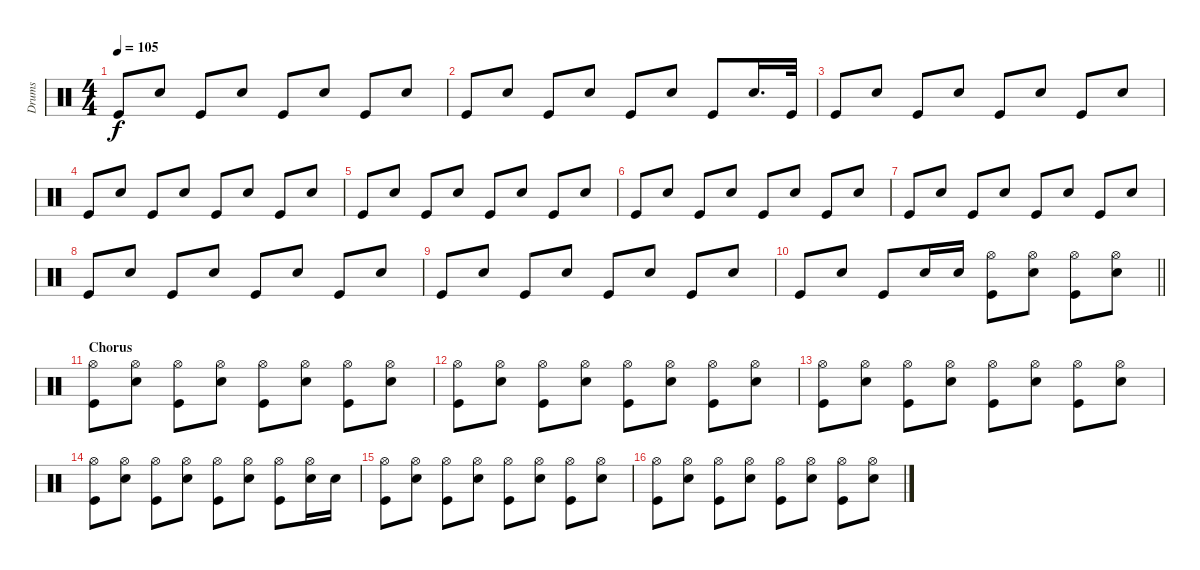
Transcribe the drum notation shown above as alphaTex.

\track ("Drums" "Drums") {instrument percussion}
\staff
\articulation defaults
\ts (4 4)
\tempo 105
\clef neutral
\ks c "Kick (hit)".8{dy f} "Snare (hit) 2".8 "Kick (hit)".8 "Snare (hit) 2".8 "Kick (hit)".8 "Snare (hit) 2".8 "Kick (hit)".8 "Snare (hit) 2".8
|
"Kick (hit)".8 "Snare (hit) 2".8 "Kick (hit)".8 "Snare (hit) 2".8 "Kick (hit)".8 "Snare (hit) 2".8 "Kick (hit)".8 "Snare (hit) 2".16{d} "Kick (hit)".32 |
"Kick (hit)".8 "Snare (hit) 2".8 "Kick (hit)".8 "Snare (hit) 2".8 "Kick (hit)".8 "Snare (hit) 2".8 "Kick (hit)".8 "Snare (hit) 2".8 |
"Kick (hit)".8 "Snare (hit) 2".8 "Kick (hit)".8 "Snare (hit) 2".8 "Kick (hit)".8 "Snare (hit) 2".8 "Kick (hit)".8 "Snare (hit) 2".8 |
"Kick (hit)".8 "Snare (hit) 2".8 "Kick (hit)".8 "Snare (hit) 2".8 "Kick (hit)".8 "Snare (hit) 2".8 "Kick (hit)".8 "Snare (hit) 2".8 |
"Kick (hit)".8 "Snare (hit) 2".8 "Kick (hit)".8 "Snare (hit) 2".8 "Kick (hit)".8 "Snare (hit) 2".8 "Kick (hit)".8 "Snare (hit) 2".8 |
"Kick (hit)".8 "Snare (hit) 2".8 "Kick (hit)".8 "Snare (hit) 2".8 "Kick (hit)".8 "Snare (hit) 2".8 "Kick (hit)".8 "Snare (hit) 2".8 |
"Kick (hit)".8 "Snare (hit) 2".8 "Kick (hit)".8 "Snare (hit) 2".8 "Kick (hit)".8 "Snare (hit) 2".8 "Kick (hit)".8 "Snare (hit) 2".8 |
"Kick (hit)".8 "Snare (hit) 2".8 "Kick (hit)".8 "Snare (hit) 2".8 "Kick (hit)".8 "Snare (hit) 2".8 "Kick (hit)".8 "Snare (hit) 2".8 |
\barLineRight lightlight "Kick (hit)".8 "Snare (hit) 2".8 "Kick (hit)".8 "Snare (hit) 2".16 "Snare (hit) 2".16
("Hi-Hat (open)" "Kick (hit)").8 ("Hi-Hat (open)" "Snare (hit) 2").8 ("Hi-Hat (open)" "Kick (hit)").8 ("Hi-Hat (open)" "Snare (hit) 2").8 |
\section ("" "Chorus")
("Hi-Hat (open)" "Kick (hit)").8 ("Hi-Hat (open)" "Snare (hit) 2").8 ("Hi-Hat (open)" "Kick (hit)").8 ("Hi-Hat (open)" "Snare (hit) 2").8 ("Hi-Hat (open)" "Kick (hit)").8 ("Hi-Hat (open)" "Snare (hit) 2").8 ("Hi-Hat (open)" "Kick (hit)").8 ("Hi-Hat (open)" "Snare (hit) 2").8 |
("Hi-Hat (open)" "Kick (hit)").8 ("Hi-Hat (open)" "Snare (hit) 2").8 ("Hi-Hat (open)" "Kick (hit)").8 ("Hi-Hat (open)" "Snare (hit) 2").8 ("Hi-Hat (open)" "Kick (hit)").8 ("Hi-Hat (open)" "Snare (hit) 2").8 ("Hi-Hat (open)" "Kick (hit)").8 ("Hi-Hat (open)" "Snare (hit) 2").8 |
("Hi-Hat (open)" "Kick (hit)").8 ("Hi-Hat (open)" "Snare (hit) 2").8 ("Hi-Hat (open)" "Kick (hit)").8 ("Hi-Hat (open)" "Snare (hit) 2").8 ("Hi-Hat (open)" "Kick (hit)").8 ("Hi-Hat (open)" "Snare (hit) 2").8 ("Hi-Hat (open)" "Kick (hit)").8 ("Hi-Hat (open)" "Snare (hit) 2").8 |
("Hi-Hat (open)" "Kick (hit)").8 ("Hi-Hat (open)" "Snare (hit) 2").8 ("Hi-Hat (open)" "Kick (hit)").8 ("Hi-Hat (open)" "Snare (hit) 2").8 ("Hi-Hat (open)" "Kick (hit)").8 ("Hi-Hat (open)" "Snare (hit) 2").8 ("Hi-Hat (open)" "Kick (hit)").8 ("Hi-Hat (open)" "Snare (hit) 2").16 "Snare (hit) 2".16 |
("Hi-Hat (open)" "Kick (hit)").8 ("Hi-Hat (open)" "Snare (hit) 2").8 ("Hi-Hat (open)" "Kick (hit)").8 ("Hi-Hat (open)" "Snare (hit) 2").8 ("Hi-Hat (open)" "Kick (hit)").8 ("Hi-Hat (open)" "Snare (hit) 2").8 ("Hi-Hat (open)" "Kick (hit)").8 ("Hi-Hat (open)" "Snare (hit) 2").8 |
("Hi-Hat (open)" "Kick (hit)").8 ("Hi-Hat (open)" "Snare (hit) 2").8 ("Hi-Hat (open)" "Kick (hit)").8 ("Hi-Hat (open)" "Snare (hit) 2").8 ("Hi-Hat (open)" "Kick (hit)").8 ("Hi-Hat (open)" "Snare (hit) 2").8 ("Hi-Hat (open)" "Kick (hit)").8 ("Hi-Hat (open)" "Snare (hit) 2").8
